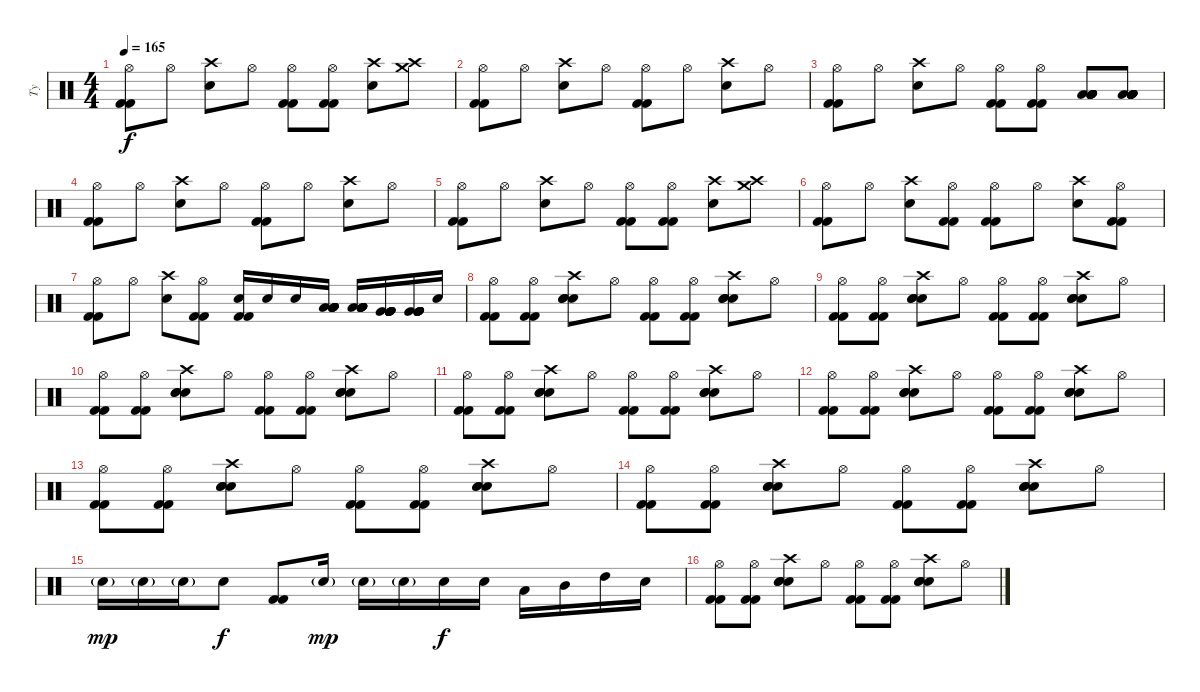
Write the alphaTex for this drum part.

\track ("Ty" "Ty") {instrument percussion}
\staff {score}
\articulation defaults
\ts (4 4)
\tempo 165
\clef neutral
\ks c
("Hi-Hat (open)" "Kick (hit) 2" "Kick (hit) 2").8{dy f} "Hi-Hat (open)".8 ("Crash high (hit)" "Electric Snare (hit)").8 "Hi-Hat (open)".8 ("Hi-Hat (open)" "Kick (hit) 2" "Kick (hit) 2").8 ("Hi-Hat (open)" "Kick (hit) 2" "Kick (hit) 2").8 ("Crash high (hit)" "Electric Snare (hit)").8 ("Crash high (hit)" "Crash medium (hit)").8 |
("Hi-Hat (open)" "Kick (hit) 2" "Kick (hit) 2").8 "Hi-Hat (open)".8 ("Crash high (hit)" "Electric Snare (hit)").8 "Hi-Hat (open)".8 ("Hi-Hat (open)" "Kick (hit) 2" "Kick (hit) 2").8 "Hi-Hat (open)".8 ("Crash high (hit)" "Electric Snare (hit)").8 "Hi-Hat (open)".8 |
("Hi-Hat (open)" "Kick (hit) 2" "Kick (hit) 2").8 "Hi-Hat (open)".8 ("Crash high (hit)" "Electric Snare (hit)").8 "Hi-Hat (open)".8 ("Hi-Hat (open)" "Kick (hit) 2" "Kick (hit) 2").8 ("Hi-Hat (open)" "Kick (hit) 2" "Kick (hit) 2").8 ("Low Tom (hit)" "Low Tom (hit)" "Low Tom (hit)" "Low Tom (hit)" "Low Tom (hit)" "Low Tom (hit)").8 ("Low Tom (hit)" "Low Tom (hit)" "Low Tom (hit)" "Low Tom (hit)" "Low Tom (hit)" "Low Tom (hit)").8 |
("Hi-Hat (open)" "Kick (hit) 2" "Kick (hit) 2").8 "Hi-Hat (open)".8 ("Crash high (hit)" "Electric Snare (hit)").8 "Hi-Hat (open)".8 ("Hi-Hat (open)" "Kick (hit) 2" "Kick (hit) 2").8 "Hi-Hat (open)".8 ("Crash high (hit)" "Electric Snare (hit)").8 "Hi-Hat (open)".8 |
("Hi-Hat (open)" "Kick (hit) 2" "Kick (hit) 2").8 "Hi-Hat (open)".8 ("Crash high (hit)" "Electric Snare (hit)").8 "Hi-Hat (open)".8 ("Hi-Hat (open)" "Kick (hit) 2" "Kick (hit) 2").8 ("Hi-Hat (open)" "Kick (hit) 2" "Kick (hit) 2").8 ("Crash high (hit)" "Electric Snare (hit)").8 ("Crash high (hit)" "Crash medium (hit)").8 |
("Hi-Hat (open)" "Kick (hit) 2" "Kick (hit) 2").8 "Hi-Hat (open)".8 ("Crash high (hit)" "Electric Snare (hit)").8 ("Hi-Hat (open)" "Kick (hit) 2" "Kick (hit) 2").8 ("Hi-Hat (open)" "Kick (hit) 2" "Kick (hit) 2").8 "Hi-Hat (open)".8 ("Crash high (hit)" "Electric Snare (hit)").8 ("Hi-Hat (open)" "Kick (hit) 2" "Kick (hit) 2").8 |
("Hi-Hat (open)" "Kick (hit) 2" "Kick (hit) 2").8 "Hi-Hat (open)".8 ("Crash high (hit)" "Electric Snare (hit)").8 ("Hi-Hat (open)" "Kick (hit) 2" "Kick (hit) 2").8 ("Electric Snare (hit)" "Kick (hit) 2" "Kick (hit) 2").16 "Electric Snare (hit)".16 "Electric Snare (hit)".16 ("Low Floor Tom (hit)" "Low Floor Tom (hit)" "Low Floor Tom (hit)" "Low Floor Tom (hit)" "Low Floor Tom (hit)" "Low Floor Tom (hit)").16 ("Low Floor Tom (hit)" "Low Floor Tom (hit)" "Low Floor Tom (hit)" "Low Floor Tom (hit)" "Low Floor Tom (hit)" "Low Floor Tom (hit)").16 ("Very Low Tom (hit)" "Very Low Tom (hit)" "Very Low Tom (hit)" "Very Low Tom (hit)" "Very Low Tom (hit)" "Very Low Tom (hit)").16 ("Very Low Tom (hit)" "Very Low Tom (hit)" "Very Low Tom (hit)" "Very Low Tom (hit)" "Very Low Tom (hit)" "Very Low Tom (hit)").16 "Electric Snare (hit)".16 |
("Hi-Hat (open)" "Kick (hit) 2" "Kick (hit) 2").8 ("Hi-Hat (open)" "Kick (hit) 2" "Kick (hit) 2").8 ("Crash high (hit)" "Hand Clap (hit)" "Hand Clap (hit)" "Electric Snare (hit)").8 "Hi-Hat (open)".8 ("Hi-Hat (open)" "Kick (hit) 2" "Kick (hit) 2").8 ("Hi-Hat (open)" "Kick (hit) 2" "Kick (hit) 2").8 ("Crash high (hit)" "Hand Clap (hit)" "Hand Clap (hit)" "Electric Snare (hit)").8 "Hi-Hat (open)".8 |
("Hi-Hat (open)" "Kick (hit) 2" "Kick (hit) 2").8 ("Hi-Hat (open)" "Kick (hit) 2" "Kick (hit) 2").8 ("Crash high (hit)" "Hand Clap (hit)" "Hand Clap (hit)" "Electric Snare (hit)").8 "Hi-Hat (open)".8 ("Hi-Hat (open)" "Kick (hit) 2" "Kick (hit) 2").8 ("Hi-Hat (open)" "Kick (hit) 2" "Kick (hit) 2").8 ("Crash high (hit)" "Hand Clap (hit)" "Hand Clap (hit)" "Electric Snare (hit)").8 "Hi-Hat (open)".8 |
("Hi-Hat (open)" "Kick (hit) 2" "Kick (hit) 2").8 ("Hi-Hat (open)" "Kick (hit) 2" "Kick (hit) 2").8 ("Crash high (hit)" "Hand Clap (hit)" "Hand Clap (hit)" "Electric Snare (hit)").8 "Hi-Hat (open)".8 ("Hi-Hat (open)" "Kick (hit) 2" "Kick (hit) 2").8 ("Hi-Hat (open)" "Kick (hit) 2" "Kick (hit) 2").8 ("Crash high (hit)" "Hand Clap (hit)" "Hand Clap (hit)" "Electric Snare (hit)").8 "Hi-Hat (open)".8 |
("Hi-Hat (open)" "Kick (hit) 2" "Kick (hit) 2").8 ("Hi-Hat (open)" "Kick (hit) 2" "Kick (hit) 2").8 ("Crash high (hit)" "Hand Clap (hit)" "Hand Clap (hit)" "Electric Snare (hit)").8 "Hi-Hat (open)".8 ("Hi-Hat (open)" "Kick (hit) 2" "Kick (hit) 2").8 ("Hi-Hat (open)" "Kick (hit) 2" "Kick (hit) 2").8 ("Crash high (hit)" "Hand Clap (hit)" "Hand Clap (hit)" "Electric Snare (hit)").8 "Hi-Hat (open)".8 |
("Hi-Hat (open)" "Kick (hit) 2" "Kick (hit) 2").8 ("Hi-Hat (open)" "Kick (hit) 2" "Kick (hit) 2").8 ("Crash high (hit)" "Hand Clap (hit)" "Hand Clap (hit)" "Electric Snare (hit)").8 "Hi-Hat (open)".8 ("Hi-Hat (open)" "Kick (hit) 2" "Kick (hit) 2").8 ("Hi-Hat (open)" "Kick (hit) 2" "Kick (hit) 2").8 ("Crash high (hit)" "Hand Clap (hit)" "Hand Clap (hit)" "Electric Snare (hit)").8 "Hi-Hat (open)".8 |
("Hi-Hat (open)" "Kick (hit) 2" "Kick (hit) 2").8 ("Hi-Hat (open)" "Kick (hit) 2" "Kick (hit) 2").8 ("Crash high (hit)" "Hand Clap (hit)" "Hand Clap (hit)" "Electric Snare (hit)").8 "Hi-Hat (open)".8 ("Hi-Hat (open)" "Kick (hit) 2" "Kick (hit) 2").8 ("Hi-Hat (open)" "Kick (hit) 2" "Kick (hit) 2").8 ("Crash high (hit)" "Hand Clap (hit)" "Hand Clap (hit)" "Electric Snare (hit)").8 "Hi-Hat (open)".8 |
("Hi-Hat (open)" "Kick (hit) 2" "Kick (hit) 2").8 ("Hi-Hat (open)" "Kick (hit) 2" "Kick (hit) 2").8 ("Crash high (hit)" "Hand Clap (hit)" "Hand Clap (hit)" "Electric Snare (hit)").8 "Hi-Hat (open)".8 ("Hi-Hat (open)" "Kick (hit) 2" "Kick (hit) 2").8 ("Hi-Hat (open)" "Kick (hit) 2" "Kick (hit) 2").8 ("Crash high (hit)" "Hand Clap (hit)" "Hand Clap (hit)" "Electric Snare (hit)").8 "Hi-Hat (open)".8 |
"Electric Snare (hit)"{g}.16{dy mp} "Electric Snare (hit)"{g}.16 "Electric Snare (hit)"{g}.16 "Electric Snare (hit)".8{dy f} ("Kick (hit) 2" "Kick (hit) 2").8 "Electric Snare (hit)"{g}.16{dy mp} "Electric Snare (hit)"{g}.16 "Electric Snare (hit)"{g}.16 "Electric Snare (hit)".16{dy f} "Electric Snare (hit)".16 "Low Tom (hit)".16 "Mid Tom (hit)".16 "High Tom (hit)".16 "Electric Snare (hit)".16 |
("Hi-Hat (open)" "Kick (hit) 2" "Kick (hit) 2").8 ("Hi-Hat (open)" "Kick (hit) 2" "Kick (hit) 2").8 ("Crash high (hit)" "Hand Clap (hit)" "Hand Clap (hit)" "Electric Snare (hit)").8 "Hi-Hat (open)".8 ("Hi-Hat (open)" "Kick (hit) 2" "Kick (hit) 2").8 ("Hi-Hat (open)" "Kick (hit) 2" "Kick (hit) 2").8 ("Crash high (hit)" "Hand Clap (hit)" "Hand Clap (hit)" "Electric Snare (hit)").8 "Hi-Hat (open)".8
